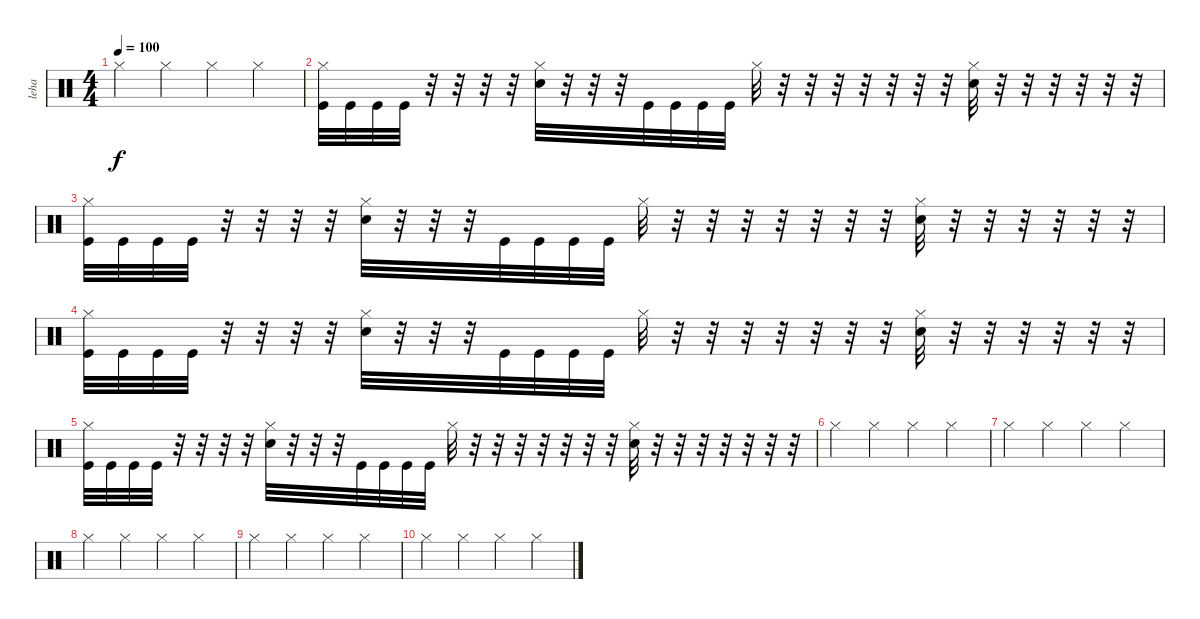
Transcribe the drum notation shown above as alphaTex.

\track ("leha" "leha") {instrument percussion}
\staff {score}
\articulation defaults
\ts (4 4)
\tempo 100
\clef neutral
\ks c "Hi-Hat (closed)".4{dy f} "Hi-Hat (closed)".4 "Hi-Hat (closed)".4 "Hi-Hat (closed)".4
|
("Kick (hit)" "Hi-Hat (closed)").32 "Kick (hit)".32 "Kick (hit)".32 "Kick (hit)".32 r.32 r.32 r.32 r.32 ("Electric Snare (hit)" "Hi-Hat (closed)").32 r.32 r.32 r.32 "Kick (hit)".32 "Kick (hit)".32 "Kick (hit)".32 "Kick (hit)".32 "Hi-Hat (closed)".32 r.32 r.32 r.32 r.32 r.32 r.32 r.32 ("Electric Snare (hit)" "Hi-Hat (closed)").32 r.32 r.32 r.32 r.32 r.32 r.32 |
("Kick (hit)" "Hi-Hat (closed)").32 "Kick (hit)".32 "Kick (hit)".32 "Kick (hit)".32 r.32 r.32 r.32 r.32 ("Electric Snare (hit)" "Hi-Hat (closed)").32 r.32 r.32 r.32 "Kick (hit)".32 "Kick (hit)".32 "Kick (hit)".32 "Kick (hit)".32 "Hi-Hat (closed)".32 r.32 r.32 r.32 r.32 r.32 r.32 r.32 ("Electric Snare (hit)" "Hi-Hat (closed)").32 r.32 r.32 r.32 r.32 r.32 r.32 |
("Kick (hit)" "Hi-Hat (closed)").32 "Kick (hit)".32 "Kick (hit)".32 "Kick (hit)".32 r.32 r.32 r.32 r.32 ("Electric Snare (hit)" "Hi-Hat (closed)").32 r.32 r.32 r.32 "Kick (hit)".32 "Kick (hit)".32 "Kick (hit)".32 "Kick (hit)".32 "Hi-Hat (closed)".32 r.32 r.32 r.32 r.32 r.32 r.32 r.32 ("Electric Snare (hit)" "Hi-Hat (closed)").32 r.32 r.32 r.32 r.32 r.32 r.32 |
("Kick (hit)" "Hi-Hat (closed)").32 "Kick (hit)".32 "Kick (hit)".32 "Kick (hit)".32 r.32 r.32 r.32 r.32 ("Electric Snare (hit)" "Hi-Hat (closed)").32 r.32 r.32 r.32 "Kick (hit)".32 "Kick (hit)".32 "Kick (hit)".32 "Kick (hit)".32 "Hi-Hat (closed)".32 r.32 r.32 r.32 r.32 r.32 r.32 r.32 ("Electric Snare (hit)" "Hi-Hat (closed)").32 r.32 r.32 r.32 r.32 r.32 r.32 r.32 |
"Hi-Hat (closed)".4 "Hi-Hat (closed)".4 "Hi-Hat (closed)".4 "Hi-Hat (closed)".4 |
"Hi-Hat (closed)".4 "Hi-Hat (closed)".4 "Hi-Hat (closed)".4 "Hi-Hat (closed)".4 |
"Hi-Hat (closed)".4 "Hi-Hat (closed)".4 "Hi-Hat (closed)".4 "Hi-Hat (closed)".4 |
"Hi-Hat (closed)".4 "Hi-Hat (closed)".4 "Hi-Hat (closed)".4 "Hi-Hat (closed)".4 |
"Hi-Hat (closed)".4 "Hi-Hat (closed)".4 "Hi-Hat (closed)".4 "Hi-Hat (closed)".4
